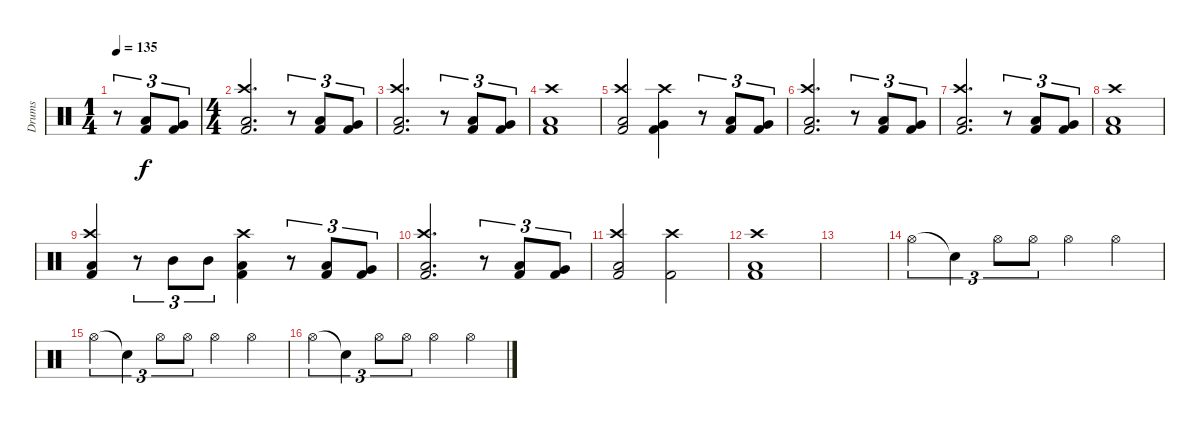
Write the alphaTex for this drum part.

\track ("Drums" "Drums") {instrument percussion}
\staff {score}
\articulation defaults
\ts (1 4)
\tempo 135
\clef neutral
\ks c
r.8{tu (3 2) dy f} ("Low Tom (hit)" "Kick (hit) 2").8{tu (3 2)} ("Very Low Tom (hit)" "Kick (hit) 2").8{tu (3 2)} |
\ts (4 4)
("Crash high (hit)" "Low Floor Tom (hit)" "Kick (hit) 2").2{d} r.8{tu (3 2)} ("Low Tom (hit)" "Kick (hit) 2").8{tu (3 2)} ("Very Low Tom (hit)" "Kick (hit) 2").8{tu (3 2)} |
("Crash high (hit)" "Low Floor Tom (hit)" "Kick (hit) 2").2{d} r.8{tu (3 2)} ("Low Tom (hit)" "Kick (hit) 2").8{tu (3 2)} ("Very Low Tom (hit)" "Kick (hit) 2").8{tu (3 2)} |
("Crash high (hit)" "Low Floor Tom (hit)" "Kick (hit) 2").1 |
("Crash high (hit)" "Low Floor Tom (hit)" "Kick (hit) 2").2 ("Crash high (hit)" "Very Low Tom (hit)" "Kick (hit) 2").4 r.8{tu (3 2)} ("Low Tom (hit)" "Kick (hit) 2").8{tu (3 2)} ("Very Low Tom (hit)" "Kick (hit) 2").8{tu (3 2)} |
("Crash high (hit)" "Low Floor Tom (hit)" "Kick (hit) 2").2{d} r.8{tu (3 2)} ("Low Tom (hit)" "Kick (hit) 2").8{tu (3 2)} ("Very Low Tom (hit)" "Kick (hit) 2").8{tu (3 2)} |
("Crash high (hit)" "Low Floor Tom (hit)" "Kick (hit) 2").2{d} r.8{tu (3 2)} ("Low Tom (hit)" "Kick (hit) 2").8{tu (3 2)} ("Very Low Tom (hit)" "Kick (hit) 2").8{tu (3 2)} |
("Crash high (hit)" "Low Floor Tom (hit)" "Kick (hit) 2").1 |
("Crash high (hit)" "Low Floor Tom (hit)" "Kick (hit) 2").4 r.8{tu (3 2)} "Mid Tom (hit)".8{tu (3 2)} "Mid Tom (hit)".8{tu (3 2)} ("Crash high (hit)" "Low Tom (hit)" "Kick (hit) 2").4 r.8{tu (3 2)} ("Low Tom (hit)" "Kick (hit) 2").8{tu (3 2)} ("Very Low Tom (hit)" "Kick (hit) 2").8{tu (3 2)} |
("Crash high (hit)" "Low Floor Tom (hit)" "Kick (hit) 2").2{d} r.8{tu (3 2)} ("Low Tom (hit)" "Kick (hit) 2").8{tu (3 2)} ("Very Low Tom (hit)" "Kick (hit) 2").8{tu (3 2)} |
("Crash high (hit)" "Low Floor Tom (hit)" "Kick (hit) 2").2 ("Crash high (hit)" "Kick (hit) 2").2 |
("Crash high (hit)" "Low Floor Tom (hit)" "Kick (hit) 2").1 |
|
"Hi-Hat (open)".4{tu (3 2) volume 10} "Snare (hit)"{t}.4{tu (3 2)} "Hi-Hat (open)".8{tu (3 2)} "Hi-Hat (open)".8{tu (3 2)} "Hi-Hat (open)".4 "Hi-Hat (open)".4 |
"Hi-Hat (open)".4{tu (3 2) volume 10} "Snare (hit)"{t}.4{tu (3 2)} "Hi-Hat (open)".8{tu (3 2)} "Hi-Hat (open)".8{tu (3 2)} "Hi-Hat (open)".4 "Hi-Hat (open)".4 |
"Hi-Hat (open)".4{tu (3 2) volume 10} "Snare (hit)"{t}.4{tu (3 2)} "Hi-Hat (open)".8{tu (3 2)} "Hi-Hat (open)".8{tu (3 2)} "Hi-Hat (open)".4 "Hi-Hat (open)".4
